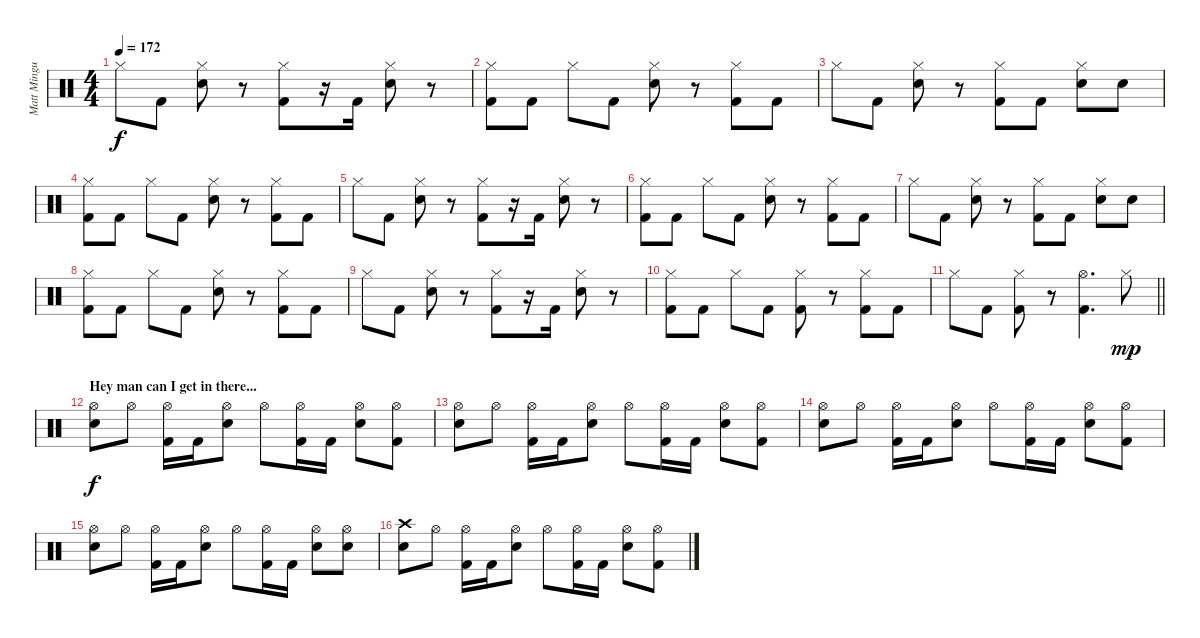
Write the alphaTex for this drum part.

\track ("Matt Mingus (Drum Kit)" "Matt Mingu") {instrument percussion}
\staff {score}
\articulation defaults
\ts (4 4)
\tempo 172
\clef neutral
\ks c "Hi-Hat (closed)".8{dy f} "Kick (hit) 2".8
("Hi-Hat (closed)" "Electric Snare (hit)").8 r.8 ("Hi-Hat (closed)" "Kick (hit) 2").8 r.16 "Kick (hit) 2".16 ("Hi-Hat (closed)" "Electric Snare (hit)").8 r.8 |
("Hi-Hat (closed)" "Kick (hit) 2").8 "Kick (hit) 2".8 "Hi-Hat (closed)".8 "Kick (hit) 2".8 ("Hi-Hat (closed)" "Electric Snare (hit)").8 r.8 ("Hi-Hat (closed)" "Kick (hit) 2").8 "Kick (hit) 2".8 |
"Hi-Hat (closed)".8 "Kick (hit) 2".8 ("Hi-Hat (closed)" "Electric Snare (hit)").8 r.8 ("Hi-Hat (closed)" "Kick (hit) 2").8 "Kick (hit) 2".8 ("Hi-Hat (closed)" "Electric Snare (hit)").8 "Electric Snare (hit)".8 |
("Hi-Hat (closed)" "Kick (hit) 2").8 "Kick (hit) 2".8 "Hi-Hat (closed)".8 "Kick (hit) 2".8 ("Hi-Hat (closed)" "Electric Snare (hit)").8 r.8 ("Hi-Hat (closed)" "Kick (hit) 2").8 "Kick (hit) 2".8 |
"Hi-Hat (closed)".8 "Kick (hit) 2".8 ("Hi-Hat (closed)" "Electric Snare (hit)").8 r.8 ("Hi-Hat (closed)" "Kick (hit) 2").8 r.16 "Kick (hit) 2".16 ("Hi-Hat (closed)" "Electric Snare (hit)").8 r.8 |
("Hi-Hat (closed)" "Kick (hit) 2").8 "Kick (hit) 2".8 "Hi-Hat (closed)".8 "Kick (hit) 2".8 ("Hi-Hat (closed)" "Electric Snare (hit)").8 r.8 ("Hi-Hat (closed)" "Kick (hit) 2").8 "Kick (hit) 2".8 |
"Hi-Hat (closed)".8 "Kick (hit) 2".8 ("Hi-Hat (closed)" "Electric Snare (hit)").8 r.8 ("Hi-Hat (closed)" "Kick (hit) 2").8 "Kick (hit) 2".8 ("Hi-Hat (closed)" "Electric Snare (hit)").8 "Electric Snare (hit)".8 |
("Hi-Hat (closed)" "Kick (hit) 2").8 "Kick (hit) 2".8 "Hi-Hat (closed)".8 "Kick (hit) 2".8 ("Hi-Hat (closed)" "Electric Snare (hit)").8 r.8 ("Hi-Hat (closed)" "Kick (hit) 2").8 "Kick (hit) 2".8 |
"Hi-Hat (closed)".8 "Kick (hit) 2".8 ("Hi-Hat (closed)" "Electric Snare (hit)").8 r.8 ("Hi-Hat (closed)" "Kick (hit) 2").8 r.16 "Kick (hit) 2".16 ("Hi-Hat (closed)" "Electric Snare (hit)").8 r.8 |
("Hi-Hat (closed)" "Kick (hit) 2").8 "Kick (hit) 2".8 "Hi-Hat (closed)".8 "Kick (hit) 2".8 ("Hi-Hat (closed)" "Kick (hit) 2").8 r.8 ("Hi-Hat (closed)" "Kick (hit) 2").8 "Kick (hit) 2".8 |
\barLineRight lightlight "Hi-Hat (closed)".8 "Kick (hit) 2".8
("Hi-Hat (closed)" "Kick (hit) 2").8 r.8 ("Hi-Hat (open)" "Kick (hit) 2").4{d} "Hi-Hat (closed)".8{dy mp} |
\section ("" "Hey man can I get in there...")
("Hi-Hat (open)" "Electric Snare (hit)").8{dy f} "Hi-Hat (open)".8 ("Hi-Hat (open)" "Kick (hit) 2").16 "Kick (hit) 2".16 ("Hi-Hat (open)" "Electric Snare (hit)").8 "Hi-Hat (open)".8 ("Hi-Hat (open)" "Kick (hit) 2").16 "Kick (hit) 2".16 ("Hi-Hat (open)" "Electric Snare (hit)").8 ("Hi-Hat (open)" "Kick (hit) 2").8 |
("Hi-Hat (open)" "Electric Snare (hit)").8 "Hi-Hat (open)".8 ("Hi-Hat (open)" "Kick (hit) 2").16 "Kick (hit) 2".16 ("Hi-Hat (open)" "Electric Snare (hit)").8 "Hi-Hat (open)".8 ("Hi-Hat (open)" "Kick (hit) 2").16 "Kick (hit) 2".16 ("Hi-Hat (open)" "Electric Snare (hit)").8 ("Hi-Hat (open)" "Kick (hit) 2").8 |
("Hi-Hat (open)" "Electric Snare (hit)").8 "Hi-Hat (open)".8 ("Hi-Hat (open)" "Kick (hit) 2").16 "Kick (hit) 2".16 ("Hi-Hat (open)" "Electric Snare (hit)").8 "Hi-Hat (open)".8 ("Hi-Hat (open)" "Kick (hit) 2").16 "Kick (hit) 2".16 ("Hi-Hat (open)" "Electric Snare (hit)").8 ("Hi-Hat (open)" "Kick (hit) 2").8 |
("Hi-Hat (open)" "Electric Snare (hit)").8 "Hi-Hat (open)".8 ("Hi-Hat (open)" "Kick (hit) 2").16 "Kick (hit) 2".16 ("Hi-Hat (open)" "Electric Snare (hit)").8 "Hi-Hat (open)".8 ("Hi-Hat (open)" "Kick (hit) 2").16 "Kick (hit) 2".16 ("Hi-Hat (open)" "Electric Snare (hit)").8 ("Hi-Hat (open)" "Electric Snare (hit)").8 |
("Crash high (hit)" "Electric Snare (hit)").8 "Hi-Hat (open)".8 ("Hi-Hat (open)" "Kick (hit) 2").16 "Kick (hit) 2".16 ("Hi-Hat (open)" "Electric Snare (hit)").8 "Hi-Hat (open)".8 ("Hi-Hat (open)" "Kick (hit) 2").16 "Kick (hit) 2".16 ("Hi-Hat (open)" "Electric Snare (hit)").8 ("Hi-Hat (open)" "Kick (hit) 2").8
